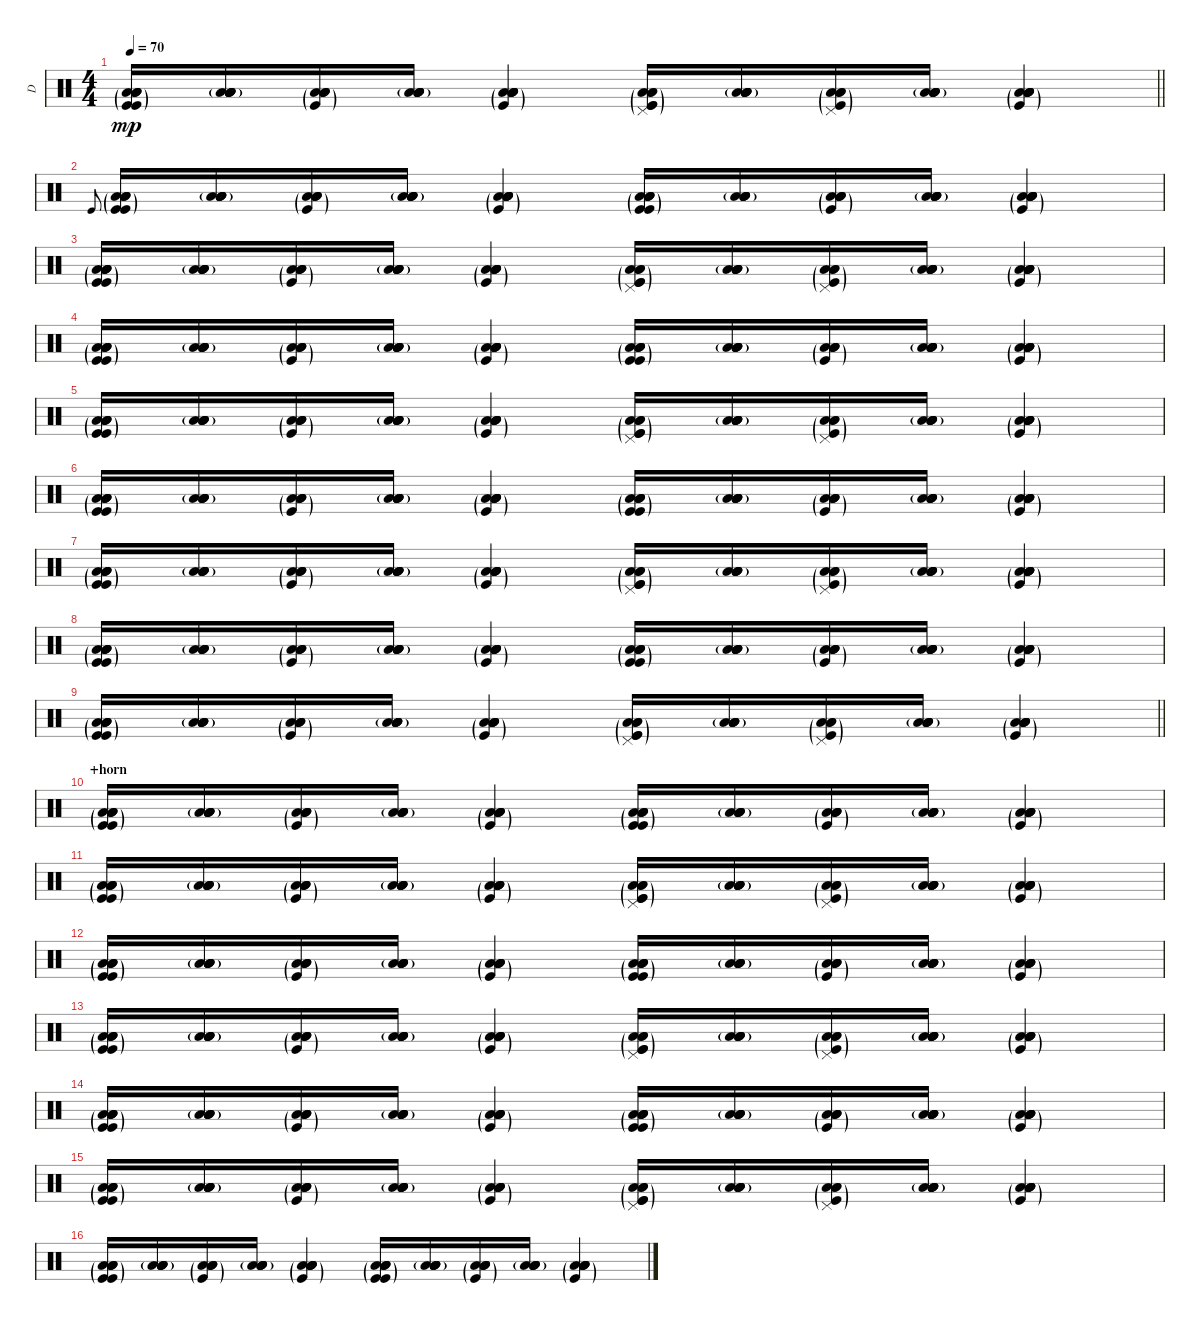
\track ("D" "D") {instrument percussion}
\staff {score}
\articulation defaults
\ts (4 4)
\tempo 70
\clef neutral
\barLineRight lightlight
\ks c
("Low Floor Tom (hit)"{g} "Low Floor Tom (hit)"{g} "Low Floor Tom (hit)"{g} "Low Floor Tom (hit)"{g} "Kick (hit)"{g} "Kick (hit)"{g}).16{dy mp} ("Low Floor Tom (hit)"{g} "Low Floor Tom (hit)"{g} "Low Floor Tom (hit)"{g} "Low Floor Tom (hit)"{g} "Low Floor Tom (hit)"{g}).16 ("Low Floor Tom (hit)"{g} "Low Floor Tom (hit)"{g} "Low Floor Tom (hit)"{g} "Low Floor Tom (hit)"{g} "Kick (hit)"{g}).16 ("Low Floor Tom (hit)"{g} "Low Floor Tom (hit)"{g} "Low Floor Tom (hit)"{g} "Low Floor Tom (hit)"{g} "Low Floor Tom (hit)"{g}).16 ("Low Floor Tom (hit)"{g} "Low Floor Tom (hit)"{g} "Low Floor Tom (hit)"{g} "Low Floor Tom (hit)"{g} "Low Floor Tom (hit)"{g} "Kick (hit)"{g}).4 ("Pedal Hi-Hat (hit)"{g} "Low Floor Tom (hit)"{g} "Low Floor Tom (hit)"{g} "Low Floor Tom (hit)"{g} "Kick (hit)"{g} "Kick (hit)"{g}).16 ("Low Floor Tom (hit)"{g} "Low Floor Tom (hit)"{g} "Low Floor Tom (hit)"{g} "Low Floor Tom (hit)"{g} "Low Floor Tom (hit)"{g}).16 ("Pedal Hi-Hat (hit)"{g} "Low Floor Tom (hit)"{g} "Low Floor Tom (hit)"{g} "Low Floor Tom (hit)"{g} "Kick (hit)"{g}).16 ("Low Floor Tom (hit)"{g} "Low Floor Tom (hit)"{g} "Low Floor Tom (hit)"{g} "Low Floor Tom (hit)"{g} "Low Floor Tom (hit)"{g}).16 ("Low Floor Tom (hit)"{g} "Low Floor Tom (hit)"{g} "Low Floor Tom (hit)"{g} "Low Floor Tom (hit)"{g} "Low Floor Tom (hit)"{g} "Kick (hit)"{g}).4 |
\section ("" "")
"Kick (hit)".8{gr onbeat} ("Low Floor Tom (hit)"{g} "Low Floor Tom (hit)"{g} "Low Floor Tom (hit)"{g} "Low Floor Tom (hit)"{g} "Kick (hit)"{g} "Kick (hit)"{g}).16 ("Low Floor Tom (hit)"{g} "Low Floor Tom (hit)"{g} "Low Floor Tom (hit)"{g} "Low Floor Tom (hit)"{g} "Low Floor Tom (hit)"{g}).16 ("Low Floor Tom (hit)"{g} "Low Floor Tom (hit)"{g} "Low Floor Tom (hit)"{g} "Low Floor Tom (hit)"{g} "Kick (hit)"{g}).16 ("Low Floor Tom (hit)"{g} "Low Floor Tom (hit)"{g} "Low Floor Tom (hit)"{g} "Low Floor Tom (hit)"{g} "Low Floor Tom (hit)"{g}).16 ("Low Floor Tom (hit)"{g} "Low Floor Tom (hit)"{g} "Low Floor Tom (hit)"{g} "Low Floor Tom (hit)"{g} "Low Floor Tom (hit)"{g} "Kick (hit)"{g}).4 ("Low Floor Tom (hit)"{g} "Low Floor Tom (hit)"{g} "Low Floor Tom (hit)"{g} "Low Floor Tom (hit)"{g} "Kick (hit)"{g} "Kick (hit)"{g}).16 ("Low Floor Tom (hit)"{g} "Low Floor Tom (hit)"{g} "Low Floor Tom (hit)"{g} "Low Floor Tom (hit)"{g} "Low Floor Tom (hit)"{g}).16 ("Low Floor Tom (hit)"{g} "Low Floor Tom (hit)"{g} "Low Floor Tom (hit)"{g} "Low Floor Tom (hit)"{g} "Kick (hit)"{g}).16 ("Low Floor Tom (hit)"{g} "Low Floor Tom (hit)"{g} "Low Floor Tom (hit)"{g} "Low Floor Tom (hit)"{g} "Low Floor Tom (hit)"{g}).16 ("Low Floor Tom (hit)"{g} "Low Floor Tom (hit)"{g} "Low Floor Tom (hit)"{g} "Low Floor Tom (hit)"{g} "Low Floor Tom (hit)"{g} "Kick (hit)"{g}).4 |
("Low Floor Tom (hit)"{g} "Low Floor Tom (hit)"{g} "Low Floor Tom (hit)"{g} "Low Floor Tom (hit)"{g} "Kick (hit)"{g} "Kick (hit)"{g}).16 ("Low Floor Tom (hit)"{g} "Low Floor Tom (hit)"{g} "Low Floor Tom (hit)"{g} "Low Floor Tom (hit)"{g} "Low Floor Tom (hit)"{g}).16 ("Low Floor Tom (hit)"{g} "Low Floor Tom (hit)"{g} "Low Floor Tom (hit)"{g} "Low Floor Tom (hit)"{g} "Kick (hit)"{g}).16 ("Low Floor Tom (hit)"{g} "Low Floor Tom (hit)"{g} "Low Floor Tom (hit)"{g} "Low Floor Tom (hit)"{g} "Low Floor Tom (hit)"{g}).16 ("Low Floor Tom (hit)"{g} "Low Floor Tom (hit)"{g} "Low Floor Tom (hit)"{g} "Low Floor Tom (hit)"{g} "Low Floor Tom (hit)"{g} "Kick (hit)"{g}).4 ("Pedal Hi-Hat (hit)"{g} "Low Floor Tom (hit)"{g} "Low Floor Tom (hit)"{g} "Low Floor Tom (hit)"{g} "Kick (hit)"{g} "Kick (hit)"{g}).16 ("Low Floor Tom (hit)"{g} "Low Floor Tom (hit)"{g} "Low Floor Tom (hit)"{g} "Low Floor Tom (hit)"{g} "Low Floor Tom (hit)"{g}).16 ("Pedal Hi-Hat (hit)"{g} "Low Floor Tom (hit)"{g} "Low Floor Tom (hit)"{g} "Low Floor Tom (hit)"{g} "Kick (hit)"{g}).16 ("Low Floor Tom (hit)"{g} "Low Floor Tom (hit)"{g} "Low Floor Tom (hit)"{g} "Low Floor Tom (hit)"{g} "Low Floor Tom (hit)"{g}).16 ("Low Floor Tom (hit)"{g} "Low Floor Tom (hit)"{g} "Low Floor Tom (hit)"{g} "Low Floor Tom (hit)"{g} "Low Floor Tom (hit)"{g} "Kick (hit)"{g}).4 |
("Low Floor Tom (hit)"{g} "Low Floor Tom (hit)"{g} "Low Floor Tom (hit)"{g} "Low Floor Tom (hit)"{g} "Kick (hit)"{g} "Kick (hit)"{g}).16 ("Low Floor Tom (hit)"{g} "Low Floor Tom (hit)"{g} "Low Floor Tom (hit)"{g} "Low Floor Tom (hit)"{g} "Low Floor Tom (hit)"{g}).16 ("Low Floor Tom (hit)"{g} "Low Floor Tom (hit)"{g} "Low Floor Tom (hit)"{g} "Low Floor Tom (hit)"{g} "Kick (hit)"{g}).16 ("Low Floor Tom (hit)"{g} "Low Floor Tom (hit)"{g} "Low Floor Tom (hit)"{g} "Low Floor Tom (hit)"{g} "Low Floor Tom (hit)"{g}).16 ("Low Floor Tom (hit)"{g} "Low Floor Tom (hit)"{g} "Low Floor Tom (hit)"{g} "Low Floor Tom (hit)"{g} "Low Floor Tom (hit)"{g} "Kick (hit)"{g}).4 ("Low Floor Tom (hit)"{g} "Low Floor Tom (hit)"{g} "Low Floor Tom (hit)"{g} "Low Floor Tom (hit)"{g} "Kick (hit)"{g} "Kick (hit)"{g}).16 ("Low Floor Tom (hit)"{g} "Low Floor Tom (hit)"{g} "Low Floor Tom (hit)"{g} "Low Floor Tom (hit)"{g} "Low Floor Tom (hit)"{g}).16 ("Low Floor Tom (hit)"{g} "Low Floor Tom (hit)"{g} "Low Floor Tom (hit)"{g} "Low Floor Tom (hit)"{g} "Kick (hit)"{g}).16 ("Low Floor Tom (hit)"{g} "Low Floor Tom (hit)"{g} "Low Floor Tom (hit)"{g} "Low Floor Tom (hit)"{g} "Low Floor Tom (hit)"{g}).16 ("Low Floor Tom (hit)"{g} "Low Floor Tom (hit)"{g} "Low Floor Tom (hit)"{g} "Low Floor Tom (hit)"{g} "Low Floor Tom (hit)"{g} "Kick (hit)"{g}).4 |
("Low Floor Tom (hit)"{g} "Low Floor Tom (hit)"{g} "Low Floor Tom (hit)"{g} "Low Floor Tom (hit)"{g} "Kick (hit)"{g} "Kick (hit)"{g}).16 ("Low Floor Tom (hit)"{g} "Low Floor Tom (hit)"{g} "Low Floor Tom (hit)"{g} "Low Floor Tom (hit)"{g} "Low Floor Tom (hit)"{g}).16 ("Low Floor Tom (hit)"{g} "Low Floor Tom (hit)"{g} "Low Floor Tom (hit)"{g} "Low Floor Tom (hit)"{g} "Kick (hit)"{g}).16 ("Low Floor Tom (hit)"{g} "Low Floor Tom (hit)"{g} "Low Floor Tom (hit)"{g} "Low Floor Tom (hit)"{g} "Low Floor Tom (hit)"{g}).16 ("Low Floor Tom (hit)"{g} "Low Floor Tom (hit)"{g} "Low Floor Tom (hit)"{g} "Low Floor Tom (hit)"{g} "Low Floor Tom (hit)"{g} "Kick (hit)"{g}).4 ("Pedal Hi-Hat (hit)"{g} "Low Floor Tom (hit)"{g} "Low Floor Tom (hit)"{g} "Low Floor Tom (hit)"{g} "Kick (hit)"{g} "Kick (hit)"{g}).16 ("Low Floor Tom (hit)"{g} "Low Floor Tom (hit)"{g} "Low Floor Tom (hit)"{g} "Low Floor Tom (hit)"{g} "Low Floor Tom (hit)"{g}).16 ("Pedal Hi-Hat (hit)"{g} "Low Floor Tom (hit)"{g} "Low Floor Tom (hit)"{g} "Low Floor Tom (hit)"{g} "Kick (hit)"{g}).16 ("Low Floor Tom (hit)"{g} "Low Floor Tom (hit)"{g} "Low Floor Tom (hit)"{g} "Low Floor Tom (hit)"{g} "Low Floor Tom (hit)"{g}).16 ("Low Floor Tom (hit)"{g} "Low Floor Tom (hit)"{g} "Low Floor Tom (hit)"{g} "Low Floor Tom (hit)"{g} "Low Floor Tom (hit)"{g} "Kick (hit)"{g}).4 |
("Low Floor Tom (hit)"{g} "Low Floor Tom (hit)"{g} "Low Floor Tom (hit)"{g} "Low Floor Tom (hit)"{g} "Kick (hit)"{g} "Kick (hit)"{g}).16 ("Low Floor Tom (hit)"{g} "Low Floor Tom (hit)"{g} "Low Floor Tom (hit)"{g} "Low Floor Tom (hit)"{g} "Low Floor Tom (hit)"{g}).16 ("Low Floor Tom (hit)"{g} "Low Floor Tom (hit)"{g} "Low Floor Tom (hit)"{g} "Low Floor Tom (hit)"{g} "Kick (hit)"{g}).16 ("Low Floor Tom (hit)"{g} "Low Floor Tom (hit)"{g} "Low Floor Tom (hit)"{g} "Low Floor Tom (hit)"{g} "Low Floor Tom (hit)"{g}).16 ("Low Floor Tom (hit)"{g} "Low Floor Tom (hit)"{g} "Low Floor Tom (hit)"{g} "Low Floor Tom (hit)"{g} "Low Floor Tom (hit)"{g} "Kick (hit)"{g}).4 ("Low Floor Tom (hit)"{g} "Low Floor Tom (hit)"{g} "Low Floor Tom (hit)"{g} "Low Floor Tom (hit)"{g} "Kick (hit)"{g} "Kick (hit)"{g}).16 ("Low Floor Tom (hit)"{g} "Low Floor Tom (hit)"{g} "Low Floor Tom (hit)"{g} "Low Floor Tom (hit)"{g} "Low Floor Tom (hit)"{g}).16 ("Low Floor Tom (hit)"{g} "Low Floor Tom (hit)"{g} "Low Floor Tom (hit)"{g} "Low Floor Tom (hit)"{g} "Kick (hit)"{g}).16 ("Low Floor Tom (hit)"{g} "Low Floor Tom (hit)"{g} "Low Floor Tom (hit)"{g} "Low Floor Tom (hit)"{g} "Low Floor Tom (hit)"{g}).16 ("Low Floor Tom (hit)"{g} "Low Floor Tom (hit)"{g} "Low Floor Tom (hit)"{g} "Low Floor Tom (hit)"{g} "Low Floor Tom (hit)"{g} "Kick (hit)"{g}).4 |
("Low Floor Tom (hit)"{g} "Low Floor Tom (hit)"{g} "Low Floor Tom (hit)"{g} "Low Floor Tom (hit)"{g} "Kick (hit)"{g} "Kick (hit)"{g}).16 ("Low Floor Tom (hit)"{g} "Low Floor Tom (hit)"{g} "Low Floor Tom (hit)"{g} "Low Floor Tom (hit)"{g} "Low Floor Tom (hit)"{g}).16 ("Low Floor Tom (hit)"{g} "Low Floor Tom (hit)"{g} "Low Floor Tom (hit)"{g} "Low Floor Tom (hit)"{g} "Kick (hit)"{g}).16 ("Low Floor Tom (hit)"{g} "Low Floor Tom (hit)"{g} "Low Floor Tom (hit)"{g} "Low Floor Tom (hit)"{g} "Low Floor Tom (hit)"{g}).16 ("Low Floor Tom (hit)"{g} "Low Floor Tom (hit)"{g} "Low Floor Tom (hit)"{g} "Low Floor Tom (hit)"{g} "Low Floor Tom (hit)"{g} "Kick (hit)"{g}).4 ("Pedal Hi-Hat (hit)"{g} "Low Floor Tom (hit)"{g} "Low Floor Tom (hit)"{g} "Low Floor Tom (hit)"{g} "Kick (hit)"{g} "Kick (hit)"{g}).16 ("Low Floor Tom (hit)"{g} "Low Floor Tom (hit)"{g} "Low Floor Tom (hit)"{g} "Low Floor Tom (hit)"{g} "Low Floor Tom (hit)"{g}).16 ("Pedal Hi-Hat (hit)"{g} "Low Floor Tom (hit)"{g} "Low Floor Tom (hit)"{g} "Low Floor Tom (hit)"{g} "Kick (hit)"{g}).16 ("Low Floor Tom (hit)"{g} "Low Floor Tom (hit)"{g} "Low Floor Tom (hit)"{g} "Low Floor Tom (hit)"{g} "Low Floor Tom (hit)"{g}).16 ("Low Floor Tom (hit)"{g} "Low Floor Tom (hit)"{g} "Low Floor Tom (hit)"{g} "Low Floor Tom (hit)"{g} "Low Floor Tom (hit)"{g} "Kick (hit)"{g}).4 |
("Low Floor Tom (hit)"{g} "Low Floor Tom (hit)"{g} "Low Floor Tom (hit)"{g} "Low Floor Tom (hit)"{g} "Kick (hit)"{g} "Kick (hit)"{g}).16 ("Low Floor Tom (hit)"{g} "Low Floor Tom (hit)"{g} "Low Floor Tom (hit)"{g} "Low Floor Tom (hit)"{g} "Low Floor Tom (hit)"{g}).16 ("Low Floor Tom (hit)"{g} "Low Floor Tom (hit)"{g} "Low Floor Tom (hit)"{g} "Low Floor Tom (hit)"{g} "Kick (hit)"{g}).16 ("Low Floor Tom (hit)"{g} "Low Floor Tom (hit)"{g} "Low Floor Tom (hit)"{g} "Low Floor Tom (hit)"{g} "Low Floor Tom (hit)"{g}).16 ("Low Floor Tom (hit)"{g} "Low Floor Tom (hit)"{g} "Low Floor Tom (hit)"{g} "Low Floor Tom (hit)"{g} "Low Floor Tom (hit)"{g} "Kick (hit)"{g}).4 ("Low Floor Tom (hit)"{g} "Low Floor Tom (hit)"{g} "Low Floor Tom (hit)"{g} "Low Floor Tom (hit)"{g} "Kick (hit)"{g} "Kick (hit)"{g}).16 ("Low Floor Tom (hit)"{g} "Low Floor Tom (hit)"{g} "Low Floor Tom (hit)"{g} "Low Floor Tom (hit)"{g} "Low Floor Tom (hit)"{g}).16 ("Low Floor Tom (hit)"{g} "Low Floor Tom (hit)"{g} "Low Floor Tom (hit)"{g} "Low Floor Tom (hit)"{g} "Kick (hit)"{g}).16 ("Low Floor Tom (hit)"{g} "Low Floor Tom (hit)"{g} "Low Floor Tom (hit)"{g} "Low Floor Tom (hit)"{g} "Low Floor Tom (hit)"{g}).16 ("Low Floor Tom (hit)"{g} "Low Floor Tom (hit)"{g} "Low Floor Tom (hit)"{g} "Low Floor Tom (hit)"{g} "Low Floor Tom (hit)"{g} "Kick (hit)"{g}).4 |
\barLineRight lightlight
("Low Floor Tom (hit)"{g} "Low Floor Tom (hit)"{g} "Low Floor Tom (hit)"{g} "Low Floor Tom (hit)"{g} "Kick (hit)"{g} "Kick (hit)"{g}).16 ("Low Floor Tom (hit)"{g} "Low Floor Tom (hit)"{g} "Low Floor Tom (hit)"{g} "Low Floor Tom (hit)"{g} "Low Floor Tom (hit)"{g}).16 ("Low Floor Tom (hit)"{g} "Low Floor Tom (hit)"{g} "Low Floor Tom (hit)"{g} "Low Floor Tom (hit)"{g} "Kick (hit)"{g}).16 ("Low Floor Tom (hit)"{g} "Low Floor Tom (hit)"{g} "Low Floor Tom (hit)"{g} "Low Floor Tom (hit)"{g} "Low Floor Tom (hit)"{g}).16 ("Low Floor Tom (hit)"{g} "Low Floor Tom (hit)"{g} "Low Floor Tom (hit)"{g} "Low Floor Tom (hit)"{g} "Low Floor Tom (hit)"{g} "Kick (hit)"{g}).4 ("Pedal Hi-Hat (hit)"{g} "Low Floor Tom (hit)"{g} "Low Floor Tom (hit)"{g} "Low Floor Tom (hit)"{g} "Kick (hit)"{g} "Kick (hit)"{g}).16 ("Low Floor Tom (hit)"{g} "Low Floor Tom (hit)"{g} "Low Floor Tom (hit)"{g} "Low Floor Tom (hit)"{g} "Low Floor Tom (hit)"{g}).16 ("Pedal Hi-Hat (hit)"{g} "Low Floor Tom (hit)"{g} "Low Floor Tom (hit)"{g} "Low Floor Tom (hit)"{g} "Kick (hit)"{g}).16 ("Low Floor Tom (hit)"{g} "Low Floor Tom (hit)"{g} "Low Floor Tom (hit)"{g} "Low Floor Tom (hit)"{g} "Low Floor Tom (hit)"{g}).16 ("Low Floor Tom (hit)"{g} "Low Floor Tom (hit)"{g} "Low Floor Tom (hit)"{g} "Low Floor Tom (hit)"{g} "Low Floor Tom (hit)"{g} "Kick (hit)"{g}).4 |
\section ("" "+horn")
("Low Floor Tom (hit)"{g} "Low Floor Tom (hit)"{g} "Low Floor Tom (hit)"{g} "Low Floor Tom (hit)"{g} "Kick (hit)"{g} "Kick (hit)"{g}).16 ("Low Floor Tom (hit)"{g} "Low Floor Tom (hit)"{g} "Low Floor Tom (hit)"{g} "Low Floor Tom (hit)"{g} "Low Floor Tom (hit)"{g}).16 ("Low Floor Tom (hit)"{g} "Low Floor Tom (hit)"{g} "Low Floor Tom (hit)"{g} "Low Floor Tom (hit)"{g} "Kick (hit)"{g}).16 ("Low Floor Tom (hit)"{g} "Low Floor Tom (hit)"{g} "Low Floor Tom (hit)"{g} "Low Floor Tom (hit)"{g} "Low Floor Tom (hit)"{g}).16 ("Low Floor Tom (hit)"{g} "Low Floor Tom (hit)"{g} "Low Floor Tom (hit)"{g} "Low Floor Tom (hit)"{g} "Low Floor Tom (hit)"{g} "Kick (hit)"{g}).4 ("Low Floor Tom (hit)"{g} "Low Floor Tom (hit)"{g} "Low Floor Tom (hit)"{g} "Low Floor Tom (hit)"{g} "Kick (hit)"{g} "Kick (hit)"{g}).16 ("Low Floor Tom (hit)"{g} "Low Floor Tom (hit)"{g} "Low Floor Tom (hit)"{g} "Low Floor Tom (hit)"{g} "Low Floor Tom (hit)"{g}).16 ("Low Floor Tom (hit)"{g} "Low Floor Tom (hit)"{g} "Low Floor Tom (hit)"{g} "Low Floor Tom (hit)"{g} "Kick (hit)"{g}).16 ("Low Floor Tom (hit)"{g} "Low Floor Tom (hit)"{g} "Low Floor Tom (hit)"{g} "Low Floor Tom (hit)"{g} "Low Floor Tom (hit)"{g}).16 ("Low Floor Tom (hit)"{g} "Low Floor Tom (hit)"{g} "Low Floor Tom (hit)"{g} "Low Floor Tom (hit)"{g} "Low Floor Tom (hit)"{g} "Kick (hit)"{g}).4 |
("Low Floor Tom (hit)"{g} "Low Floor Tom (hit)"{g} "Low Floor Tom (hit)"{g} "Low Floor Tom (hit)"{g} "Kick (hit)"{g} "Kick (hit)"{g}).16 ("Low Floor Tom (hit)"{g} "Low Floor Tom (hit)"{g} "Low Floor Tom (hit)"{g} "Low Floor Tom (hit)"{g} "Low Floor Tom (hit)"{g}).16 ("Low Floor Tom (hit)"{g} "Low Floor Tom (hit)"{g} "Low Floor Tom (hit)"{g} "Low Floor Tom (hit)"{g} "Kick (hit)"{g}).16 ("Low Floor Tom (hit)"{g} "Low Floor Tom (hit)"{g} "Low Floor Tom (hit)"{g} "Low Floor Tom (hit)"{g} "Low Floor Tom (hit)"{g}).16 ("Low Floor Tom (hit)"{g} "Low Floor Tom (hit)"{g} "Low Floor Tom (hit)"{g} "Low Floor Tom (hit)"{g} "Low Floor Tom (hit)"{g} "Kick (hit)"{g}).4 ("Pedal Hi-Hat (hit)"{g} "Low Floor Tom (hit)"{g} "Low Floor Tom (hit)"{g} "Low Floor Tom (hit)"{g} "Kick (hit)"{g} "Kick (hit)"{g}).16 ("Low Floor Tom (hit)"{g} "Low Floor Tom (hit)"{g} "Low Floor Tom (hit)"{g} "Low Floor Tom (hit)"{g} "Low Floor Tom (hit)"{g}).16 ("Pedal Hi-Hat (hit)"{g} "Low Floor Tom (hit)"{g} "Low Floor Tom (hit)"{g} "Low Floor Tom (hit)"{g} "Kick (hit)"{g}).16 ("Low Floor Tom (hit)"{g} "Low Floor Tom (hit)"{g} "Low Floor Tom (hit)"{g} "Low Floor Tom (hit)"{g} "Low Floor Tom (hit)"{g}).16 ("Low Floor Tom (hit)"{g} "Low Floor Tom (hit)"{g} "Low Floor Tom (hit)"{g} "Low Floor Tom (hit)"{g} "Low Floor Tom (hit)"{g} "Kick (hit)"{g}).4 |
("Low Floor Tom (hit)"{g} "Low Floor Tom (hit)"{g} "Low Floor Tom (hit)"{g} "Low Floor Tom (hit)"{g} "Kick (hit)"{g} "Kick (hit)"{g}).16 ("Low Floor Tom (hit)"{g} "Low Floor Tom (hit)"{g} "Low Floor Tom (hit)"{g} "Low Floor Tom (hit)"{g} "Low Floor Tom (hit)"{g}).16 ("Low Floor Tom (hit)"{g} "Low Floor Tom (hit)"{g} "Low Floor Tom (hit)"{g} "Low Floor Tom (hit)"{g} "Kick (hit)"{g}).16 ("Low Floor Tom (hit)"{g} "Low Floor Tom (hit)"{g} "Low Floor Tom (hit)"{g} "Low Floor Tom (hit)"{g} "Low Floor Tom (hit)"{g}).16 ("Low Floor Tom (hit)"{g} "Low Floor Tom (hit)"{g} "Low Floor Tom (hit)"{g} "Low Floor Tom (hit)"{g} "Low Floor Tom (hit)"{g} "Kick (hit)"{g}).4 ("Low Floor Tom (hit)"{g} "Low Floor Tom (hit)"{g} "Low Floor Tom (hit)"{g} "Low Floor Tom (hit)"{g} "Kick (hit)"{g} "Kick (hit)"{g}).16 ("Low Floor Tom (hit)"{g} "Low Floor Tom (hit)"{g} "Low Floor Tom (hit)"{g} "Low Floor Tom (hit)"{g} "Low Floor Tom (hit)"{g}).16 ("Low Floor Tom (hit)"{g} "Low Floor Tom (hit)"{g} "Low Floor Tom (hit)"{g} "Low Floor Tom (hit)"{g} "Kick (hit)"{g}).16 ("Low Floor Tom (hit)"{g} "Low Floor Tom (hit)"{g} "Low Floor Tom (hit)"{g} "Low Floor Tom (hit)"{g} "Low Floor Tom (hit)"{g}).16 ("Low Floor Tom (hit)"{g} "Low Floor Tom (hit)"{g} "Low Floor Tom (hit)"{g} "Low Floor Tom (hit)"{g} "Low Floor Tom (hit)"{g} "Kick (hit)"{g}).4 |
("Low Floor Tom (hit)"{g} "Low Floor Tom (hit)"{g} "Low Floor Tom (hit)"{g} "Low Floor Tom (hit)"{g} "Kick (hit)"{g} "Kick (hit)"{g}).16 ("Low Floor Tom (hit)"{g} "Low Floor Tom (hit)"{g} "Low Floor Tom (hit)"{g} "Low Floor Tom (hit)"{g} "Low Floor Tom (hit)"{g}).16 ("Low Floor Tom (hit)"{g} "Low Floor Tom (hit)"{g} "Low Floor Tom (hit)"{g} "Low Floor Tom (hit)"{g} "Kick (hit)"{g}).16 ("Low Floor Tom (hit)"{g} "Low Floor Tom (hit)"{g} "Low Floor Tom (hit)"{g} "Low Floor Tom (hit)"{g} "Low Floor Tom (hit)"{g}).16 ("Low Floor Tom (hit)"{g} "Low Floor Tom (hit)"{g} "Low Floor Tom (hit)"{g} "Low Floor Tom (hit)"{g} "Low Floor Tom (hit)"{g} "Kick (hit)"{g}).4 ("Pedal Hi-Hat (hit)"{g} "Low Floor Tom (hit)"{g} "Low Floor Tom (hit)"{g} "Low Floor Tom (hit)"{g} "Kick (hit)"{g} "Kick (hit)"{g}).16 ("Low Floor Tom (hit)"{g} "Low Floor Tom (hit)"{g} "Low Floor Tom (hit)"{g} "Low Floor Tom (hit)"{g} "Low Floor Tom (hit)"{g}).16 ("Pedal Hi-Hat (hit)"{g} "Low Floor Tom (hit)"{g} "Low Floor Tom (hit)"{g} "Low Floor Tom (hit)"{g} "Kick (hit)"{g}).16 ("Low Floor Tom (hit)"{g} "Low Floor Tom (hit)"{g} "Low Floor Tom (hit)"{g} "Low Floor Tom (hit)"{g} "Low Floor Tom (hit)"{g}).16 ("Low Floor Tom (hit)"{g} "Low Floor Tom (hit)"{g} "Low Floor Tom (hit)"{g} "Low Floor Tom (hit)"{g} "Low Floor Tom (hit)"{g} "Kick (hit)"{g}).4 |
("Low Floor Tom (hit)"{g} "Low Floor Tom (hit)"{g} "Low Floor Tom (hit)"{g} "Low Floor Tom (hit)"{g} "Kick (hit)"{g} "Kick (hit)"{g}).16 ("Low Floor Tom (hit)"{g} "Low Floor Tom (hit)"{g} "Low Floor Tom (hit)"{g} "Low Floor Tom (hit)"{g} "Low Floor Tom (hit)"{g}).16 ("Low Floor Tom (hit)"{g} "Low Floor Tom (hit)"{g} "Low Floor Tom (hit)"{g} "Low Floor Tom (hit)"{g} "Kick (hit)"{g}).16 ("Low Floor Tom (hit)"{g} "Low Floor Tom (hit)"{g} "Low Floor Tom (hit)"{g} "Low Floor Tom (hit)"{g} "Low Floor Tom (hit)"{g}).16 ("Low Floor Tom (hit)"{g} "Low Floor Tom (hit)"{g} "Low Floor Tom (hit)"{g} "Low Floor Tom (hit)"{g} "Low Floor Tom (hit)"{g} "Kick (hit)"{g}).4 ("Low Floor Tom (hit)"{g} "Low Floor Tom (hit)"{g} "Low Floor Tom (hit)"{g} "Low Floor Tom (hit)"{g} "Kick (hit)"{g} "Kick (hit)"{g}).16 ("Low Floor Tom (hit)"{g} "Low Floor Tom (hit)"{g} "Low Floor Tom (hit)"{g} "Low Floor Tom (hit)"{g} "Low Floor Tom (hit)"{g}).16 ("Low Floor Tom (hit)"{g} "Low Floor Tom (hit)"{g} "Low Floor Tom (hit)"{g} "Low Floor Tom (hit)"{g} "Kick (hit)"{g}).16 ("Low Floor Tom (hit)"{g} "Low Floor Tom (hit)"{g} "Low Floor Tom (hit)"{g} "Low Floor Tom (hit)"{g} "Low Floor Tom (hit)"{g}).16 ("Low Floor Tom (hit)"{g} "Low Floor Tom (hit)"{g} "Low Floor Tom (hit)"{g} "Low Floor Tom (hit)"{g} "Low Floor Tom (hit)"{g} "Kick (hit)"{g}).4 |
("Low Floor Tom (hit)"{g} "Low Floor Tom (hit)"{g} "Low Floor Tom (hit)"{g} "Low Floor Tom (hit)"{g} "Kick (hit)"{g} "Kick (hit)"{g}).16 ("Low Floor Tom (hit)"{g} "Low Floor Tom (hit)"{g} "Low Floor Tom (hit)"{g} "Low Floor Tom (hit)"{g} "Low Floor Tom (hit)"{g}).16 ("Low Floor Tom (hit)"{g} "Low Floor Tom (hit)"{g} "Low Floor Tom (hit)"{g} "Low Floor Tom (hit)"{g} "Kick (hit)"{g}).16 ("Low Floor Tom (hit)"{g} "Low Floor Tom (hit)"{g} "Low Floor Tom (hit)"{g} "Low Floor Tom (hit)"{g} "Low Floor Tom (hit)"{g}).16 ("Low Floor Tom (hit)"{g} "Low Floor Tom (hit)"{g} "Low Floor Tom (hit)"{g} "Low Floor Tom (hit)"{g} "Low Floor Tom (hit)"{g} "Kick (hit)"{g}).4 ("Pedal Hi-Hat (hit)"{g} "Low Floor Tom (hit)"{g} "Low Floor Tom (hit)"{g} "Low Floor Tom (hit)"{g} "Kick (hit)"{g} "Kick (hit)"{g}).16 ("Low Floor Tom (hit)"{g} "Low Floor Tom (hit)"{g} "Low Floor Tom (hit)"{g} "Low Floor Tom (hit)"{g} "Low Floor Tom (hit)"{g}).16 ("Pedal Hi-Hat (hit)"{g} "Low Floor Tom (hit)"{g} "Low Floor Tom (hit)"{g} "Low Floor Tom (hit)"{g} "Kick (hit)"{g}).16 ("Low Floor Tom (hit)"{g} "Low Floor Tom (hit)"{g} "Low Floor Tom (hit)"{g} "Low Floor Tom (hit)"{g} "Low Floor Tom (hit)"{g}).16 ("Low Floor Tom (hit)"{g} "Low Floor Tom (hit)"{g} "Low Floor Tom (hit)"{g} "Low Floor Tom (hit)"{g} "Low Floor Tom (hit)"{g} "Kick (hit)"{g}).4 |
("Low Floor Tom (hit)"{g} "Low Floor Tom (hit)"{g} "Low Floor Tom (hit)"{g} "Low Floor Tom (hit)"{g} "Kick (hit)"{g} "Kick (hit)"{g}).16 ("Low Floor Tom (hit)"{g} "Low Floor Tom (hit)"{g} "Low Floor Tom (hit)"{g} "Low Floor Tom (hit)"{g} "Low Floor Tom (hit)"{g}).16 ("Low Floor Tom (hit)"{g} "Low Floor Tom (hit)"{g} "Low Floor Tom (hit)"{g} "Low Floor Tom (hit)"{g} "Kick (hit)"{g}).16 ("Low Floor Tom (hit)"{g} "Low Floor Tom (hit)"{g} "Low Floor Tom (hit)"{g} "Low Floor Tom (hit)"{g} "Low Floor Tom (hit)"{g}).16 ("Low Floor Tom (hit)"{g} "Low Floor Tom (hit)"{g} "Low Floor Tom (hit)"{g} "Low Floor Tom (hit)"{g} "Low Floor Tom (hit)"{g} "Kick (hit)"{g}).4 ("Low Floor Tom (hit)"{g} "Low Floor Tom (hit)"{g} "Low Floor Tom (hit)"{g} "Low Floor Tom (hit)"{g} "Kick (hit)"{g} "Kick (hit)"{g}).16 ("Low Floor Tom (hit)"{g} "Low Floor Tom (hit)"{g} "Low Floor Tom (hit)"{g} "Low Floor Tom (hit)"{g} "Low Floor Tom (hit)"{g}).16 ("Low Floor Tom (hit)"{g} "Low Floor Tom (hit)"{g} "Low Floor Tom (hit)"{g} "Low Floor Tom (hit)"{g} "Kick (hit)"{g}).16 ("Low Floor Tom (hit)"{g} "Low Floor Tom (hit)"{g} "Low Floor Tom (hit)"{g} "Low Floor Tom (hit)"{g} "Low Floor Tom (hit)"{g}).16 ("Low Floor Tom (hit)"{g} "Low Floor Tom (hit)"{g} "Low Floor Tom (hit)"{g} "Low Floor Tom (hit)"{g} "Low Floor Tom (hit)"{g} "Kick (hit)"{g}).4
